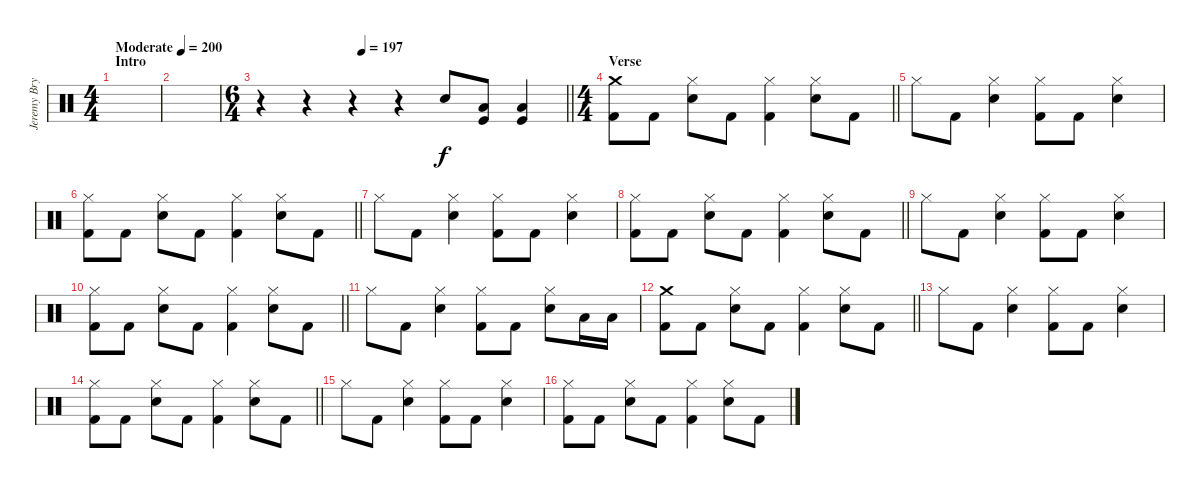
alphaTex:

\track ("Jeremy Bryan - Drums" "Jeremy Bry") {instrument percussion}
\staff {score}
\articulation defaults
\ts (4 4)
\section ("" "Intro")
\tempo (200 "Moderate")
\tempo 178
\tempo (200 "Moderate")
\clef neutral
\ks c
|
|
\ts (6 4)
\tempo (197 0.3333333333333333)
\barLineRight lightlight
r.4 r.4 r.4 r.4 "Electric Snare (hit)".8 ("Low Tom (hit)" "Kick (hit)").8 ("Low Tom (hit)" "Kick (hit)").4 |
\ts (4 4)
\section ("" "Verse")
\barLineRight lightlight
("Crash medium (hit)" "Kick (hit) 2").8 "Kick (hit) 2".8 ("Hi-Hat (closed)" "Electric Snare (hit)").8 "Kick (hit) 2".8 ("Hi-Hat (closed)" "Kick (hit) 2").4 ("Hi-Hat (closed)" "Electric Snare (hit)").8 "Kick (hit) 2".8 |
"Hi-Hat (closed)".8 "Kick (hit) 2".8 ("Hi-Hat (closed)" "Electric Snare (hit)").4 ("Hi-Hat (closed)" "Kick (hit) 2").8 "Kick (hit) 2".8 ("Hi-Hat (closed)" "Electric Snare (hit)").4 |
\barLineRight lightlight
("Hi-Hat (closed)" "Kick (hit) 2").8 "Kick (hit) 2".8 ("Hi-Hat (closed)" "Electric Snare (hit)").8 "Kick (hit) 2".8 ("Hi-Hat (closed)" "Kick (hit) 2").4 ("Hi-Hat (closed)" "Electric Snare (hit)").8 "Kick (hit) 2".8 |
"Hi-Hat (closed)".8 "Kick (hit) 2".8 ("Hi-Hat (closed)" "Electric Snare (hit)").4 ("Hi-Hat (closed)" "Kick (hit) 2").8 "Kick (hit) 2".8 ("Hi-Hat (closed)" "Electric Snare (hit)").4 |
\barLineRight lightlight
("Hi-Hat (closed)" "Kick (hit) 2").8 "Kick (hit) 2".8 ("Hi-Hat (closed)" "Electric Snare (hit)").8 "Kick (hit) 2".8 ("Hi-Hat (closed)" "Kick (hit) 2").4 ("Hi-Hat (closed)" "Electric Snare (hit)").8 "Kick (hit) 2".8 |
"Hi-Hat (closed)".8 "Kick (hit) 2".8 ("Hi-Hat (closed)" "Electric Snare (hit)").4 ("Hi-Hat (closed)" "Kick (hit) 2").8 "Kick (hit) 2".8 ("Hi-Hat (closed)" "Electric Snare (hit)").4 |
\barLineRight lightlight
("Hi-Hat (closed)" "Kick (hit) 2").8 "Kick (hit) 2".8 ("Hi-Hat (closed)" "Electric Snare (hit)").8 "Kick (hit) 2".8 ("Hi-Hat (closed)" "Kick (hit) 2").4 ("Hi-Hat (closed)" "Electric Snare (hit)").8 "Kick (hit) 2".8 |
"Hi-Hat (closed)".8 "Kick (hit) 2".8 ("Hi-Hat (closed)" "Electric Snare (hit)").4 ("Hi-Hat (closed)" "Kick (hit) 2").8 "Kick (hit) 2".8 ("Hi-Hat (closed)" "Electric Snare (hit)").8 "Low Tom (hit)".16 "Low Tom (hit)".16 |
\barLineRight lightlight
("Crash medium (hit)" "Kick (hit) 2").8 "Kick (hit) 2".8 ("Hi-Hat (closed)" "Electric Snare (hit)").8 "Kick (hit) 2".8 ("Hi-Hat (closed)" "Kick (hit) 2").4 ("Hi-Hat (closed)" "Electric Snare (hit)").8 "Kick (hit) 2".8 |
"Hi-Hat (closed)".8 "Kick (hit) 2".8 ("Hi-Hat (closed)" "Electric Snare (hit)").4 ("Hi-Hat (closed)" "Kick (hit) 2").8 "Kick (hit) 2".8 ("Hi-Hat (closed)" "Electric Snare (hit)").4 |
\barLineRight lightlight
("Hi-Hat (closed)" "Kick (hit) 2").8 "Kick (hit) 2".8 ("Hi-Hat (closed)" "Electric Snare (hit)").8 "Kick (hit) 2".8 ("Hi-Hat (closed)" "Kick (hit) 2").4 ("Hi-Hat (closed)" "Electric Snare (hit)").8 "Kick (hit) 2".8 |
"Hi-Hat (closed)".8 "Kick (hit) 2".8 ("Hi-Hat (closed)" "Electric Snare (hit)").4 ("Hi-Hat (closed)" "Kick (hit) 2").8 "Kick (hit) 2".8 ("Hi-Hat (closed)" "Electric Snare (hit)").4 |
("Hi-Hat (closed)" "Kick (hit) 2").8 "Kick (hit) 2".8 ("Hi-Hat (closed)" "Electric Snare (hit)").8 "Kick (hit) 2".8 ("Hi-Hat (closed)" "Kick (hit) 2").4 ("Hi-Hat (closed)" "Electric Snare (hit)").8 "Kick (hit) 2".8
